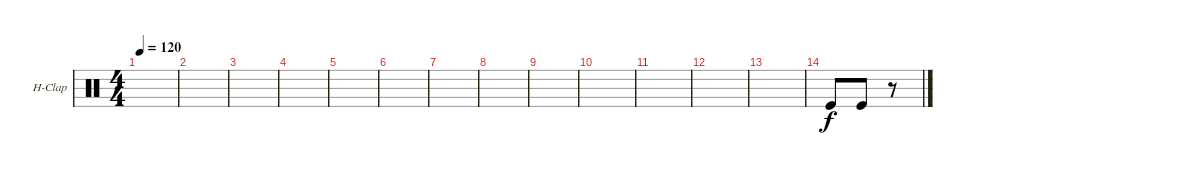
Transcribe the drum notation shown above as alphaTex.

\defaultSystemsLayout 4
\bracketExtendMode groupsimilarinstruments
\firstSystemTrackNameOrientation horizontal
\otherSystemsTrackNameOrientation horizontal
\track ("Hand Clap" "H-Clap") {instrument percussion}
\staff {score}
\articulation defaults
\ts (4 4)
\tempo 120
\clef neutral
\ks c
|
|
|
|
|
|
|
|
|
|
|
|
|
"Kick (hit)".8 "Kick (hit)".8 r.8
